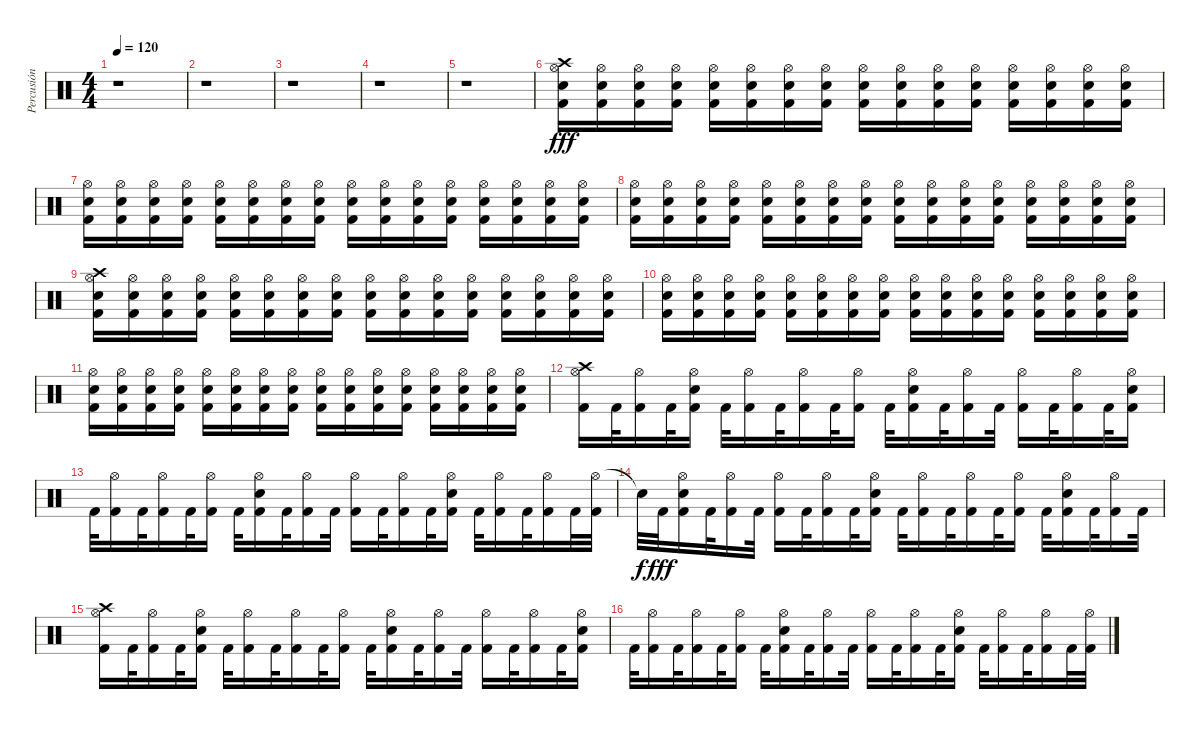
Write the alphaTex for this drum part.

\track ("Percusión" "Percusión") {instrument percussion}
\staff {score}
\articulation defaults
\ts (4 4)
\tempo 120
\clef neutral
\ks c
r.1{dy f} |
r.1 |
r.1 |
r.1 |
r.1 |
("Crash high (hit)" "Hi-Hat (open)" "Electric Snare (hit)" "Kick (hit) 2").16{dy fff} ("Hi-Hat (open)" "Electric Snare (hit)" "Kick (hit) 2").16 ("Hi-Hat (open)" "Electric Snare (hit)" "Kick (hit) 2").16 ("Hi-Hat (open)" "Electric Snare (hit)" "Kick (hit) 2").16 ("Hi-Hat (open)" "Electric Snare (hit)" "Kick (hit) 2").16 ("Hi-Hat (open)" "Electric Snare (hit)" "Kick (hit) 2").16 ("Hi-Hat (open)" "Electric Snare (hit)" "Kick (hit) 2").16 ("Hi-Hat (open)" "Electric Snare (hit)" "Kick (hit) 2").16 ("Hi-Hat (open)" "Electric Snare (hit)" "Kick (hit) 2").16 ("Hi-Hat (open)" "Electric Snare (hit)" "Kick (hit) 2").16 ("Hi-Hat (open)" "Electric Snare (hit)" "Kick (hit) 2").16 ("Hi-Hat (open)" "Electric Snare (hit)" "Kick (hit) 2").16 ("Hi-Hat (open)" "Electric Snare (hit)" "Kick (hit) 2").16 ("Hi-Hat (open)" "Electric Snare (hit)" "Kick (hit) 2").16 ("Hi-Hat (open)" "Electric Snare (hit)" "Kick (hit) 2").16 ("Hi-Hat (open)" "Electric Snare (hit)" "Kick (hit) 2").16 |
("Hi-Hat (open)" "Electric Snare (hit)" "Kick (hit) 2").16 ("Hi-Hat (open)" "Electric Snare (hit)" "Kick (hit) 2").16 ("Hi-Hat (open)" "Electric Snare (hit)" "Kick (hit) 2").16 ("Hi-Hat (open)" "Electric Snare (hit)" "Kick (hit) 2").16 ("Hi-Hat (open)" "Electric Snare (hit)" "Kick (hit) 2").16 ("Hi-Hat (open)" "Electric Snare (hit)" "Kick (hit) 2").16 ("Hi-Hat (open)" "Electric Snare (hit)" "Kick (hit) 2").16 ("Hi-Hat (open)" "Electric Snare (hit)" "Kick (hit) 2").16 ("Hi-Hat (open)" "Electric Snare (hit)" "Kick (hit) 2").16 ("Hi-Hat (open)" "Electric Snare (hit)" "Kick (hit) 2").16 ("Hi-Hat (open)" "Electric Snare (hit)" "Kick (hit) 2").16 ("Hi-Hat (open)" "Electric Snare (hit)" "Kick (hit) 2").16 ("Hi-Hat (open)" "Electric Snare (hit)" "Kick (hit) 2").16 ("Hi-Hat (open)" "Electric Snare (hit)" "Kick (hit) 2").16 ("Hi-Hat (open)" "Electric Snare (hit)" "Kick (hit) 2").16 ("Hi-Hat (open)" "Electric Snare (hit)" "Kick (hit) 2").16 |
("Hi-Hat (open)" "Electric Snare (hit)" "Kick (hit) 2").16 ("Hi-Hat (open)" "Electric Snare (hit)" "Kick (hit) 2").16 ("Hi-Hat (open)" "Electric Snare (hit)" "Kick (hit) 2").16 ("Hi-Hat (open)" "Electric Snare (hit)" "Kick (hit) 2").16 ("Hi-Hat (open)" "Electric Snare (hit)" "Kick (hit) 2").16 ("Hi-Hat (open)" "Electric Snare (hit)" "Kick (hit) 2").16 ("Hi-Hat (open)" "Electric Snare (hit)" "Kick (hit) 2").16 ("Hi-Hat (open)" "Electric Snare (hit)" "Kick (hit) 2").16 ("Hi-Hat (open)" "Electric Snare (hit)" "Kick (hit) 2").16 ("Hi-Hat (open)" "Electric Snare (hit)" "Kick (hit) 2").16 ("Hi-Hat (open)" "Electric Snare (hit)" "Kick (hit) 2").16 ("Hi-Hat (open)" "Electric Snare (hit)" "Kick (hit) 2").16 ("Hi-Hat (open)" "Electric Snare (hit)" "Kick (hit) 2").16 ("Hi-Hat (open)" "Electric Snare (hit)" "Kick (hit) 2").16 ("Hi-Hat (open)" "Electric Snare (hit)" "Kick (hit) 2").16 ("Hi-Hat (open)" "Electric Snare (hit)" "Kick (hit) 2").16 |
("Crash high (hit)" "Hi-Hat (open)" "Electric Snare (hit)" "Kick (hit) 2").16 ("Hi-Hat (open)" "Electric Snare (hit)" "Kick (hit) 2").16 ("Hi-Hat (open)" "Electric Snare (hit)" "Kick (hit) 2").16 ("Hi-Hat (open)" "Electric Snare (hit)" "Kick (hit) 2").16 ("Hi-Hat (open)" "Electric Snare (hit)" "Kick (hit) 2").16 ("Hi-Hat (open)" "Electric Snare (hit)" "Kick (hit) 2").16 ("Hi-Hat (open)" "Electric Snare (hit)" "Kick (hit) 2").16 ("Hi-Hat (open)" "Electric Snare (hit)" "Kick (hit) 2").16 ("Hi-Hat (open)" "Electric Snare (hit)" "Kick (hit) 2").16 ("Hi-Hat (open)" "Electric Snare (hit)" "Kick (hit) 2").16 ("Hi-Hat (open)" "Electric Snare (hit)" "Kick (hit) 2").16 ("Hi-Hat (open)" "Electric Snare (hit)" "Kick (hit) 2").16 ("Hi-Hat (open)" "Electric Snare (hit)" "Kick (hit) 2").16 ("Hi-Hat (open)" "Electric Snare (hit)" "Kick (hit) 2").16 ("Hi-Hat (open)" "Electric Snare (hit)" "Kick (hit) 2").16 ("Hi-Hat (open)" "Electric Snare (hit)" "Kick (hit) 2").16 |
("Hi-Hat (open)" "Electric Snare (hit)" "Kick (hit) 2").16 ("Hi-Hat (open)" "Electric Snare (hit)" "Kick (hit) 2").16 ("Hi-Hat (open)" "Electric Snare (hit)" "Kick (hit) 2").16 ("Hi-Hat (open)" "Electric Snare (hit)" "Kick (hit) 2").16 ("Hi-Hat (open)" "Electric Snare (hit)" "Kick (hit) 2").16 ("Hi-Hat (open)" "Electric Snare (hit)" "Kick (hit) 2").16 ("Hi-Hat (open)" "Electric Snare (hit)" "Kick (hit) 2").16 ("Hi-Hat (open)" "Electric Snare (hit)" "Kick (hit) 2").16 ("Hi-Hat (open)" "Electric Snare (hit)" "Kick (hit) 2").16 ("Hi-Hat (open)" "Electric Snare (hit)" "Kick (hit) 2").16 ("Hi-Hat (open)" "Electric Snare (hit)" "Kick (hit) 2").16 ("Hi-Hat (open)" "Electric Snare (hit)" "Kick (hit) 2").16 ("Hi-Hat (open)" "Electric Snare (hit)" "Kick (hit) 2").16 ("Hi-Hat (open)" "Electric Snare (hit)" "Kick (hit) 2").16 ("Hi-Hat (open)" "Electric Snare (hit)" "Kick (hit) 2").16 ("Hi-Hat (open)" "Electric Snare (hit)" "Kick (hit) 2").16 |
("Hi-Hat (open)" "Electric Snare (hit)" "Kick (hit) 2").16 ("Hi-Hat (open)" "Electric Snare (hit)" "Kick (hit) 2").16 ("Hi-Hat (open)" "Electric Snare (hit)" "Kick (hit) 2").16 ("Hi-Hat (open)" "Electric Snare (hit)" "Kick (hit) 2").16 ("Hi-Hat (open)" "Electric Snare (hit)" "Kick (hit) 2").16 ("Hi-Hat (open)" "Electric Snare (hit)" "Kick (hit) 2").16 ("Hi-Hat (open)" "Electric Snare (hit)" "Kick (hit) 2").16 ("Hi-Hat (open)" "Electric Snare (hit)" "Kick (hit) 2").16 ("Hi-Hat (open)" "Electric Snare (hit)" "Kick (hit) 2").16 ("Hi-Hat (open)" "Electric Snare (hit)" "Kick (hit) 2").16 ("Hi-Hat (open)" "Electric Snare (hit)" "Kick (hit) 2").16 ("Hi-Hat (open)" "Electric Snare (hit)" "Kick (hit) 2").16 ("Hi-Hat (open)" "Electric Snare (hit)" "Kick (hit) 2").16 ("Hi-Hat (open)" "Electric Snare (hit)" "Kick (hit) 2").16 ("Hi-Hat (open)" "Electric Snare (hit)" "Kick (hit) 2").16 ("Hi-Hat (open)" "Electric Snare (hit)" "Kick (hit) 2").16 |
("Hi-Hat (open)" "Crash high (hit)" "Kick (hit) 2").16 "Kick (hit) 2".32 ("Hi-Hat (open)" "Kick (hit) 2").16 "Kick (hit) 2".32 ("Hi-Hat (open)" "Electric Snare (hit)" "Kick (hit) 2").16 "Kick (hit) 2".32 ("Hi-Hat (open)" "Kick (hit) 2").16 "Kick (hit) 2".32 ("Hi-Hat (open)" "Kick (hit) 2").16 "Kick (hit) 2".32 ("Hi-Hat (open)" "Kick (hit) 2").16 "Kick (hit) 2".32 ("Hi-Hat (open)" "Electric Snare (hit)" "Kick (hit) 2").16 "Kick (hit) 2".32 ("Hi-Hat (open)" "Kick (hit) 2").16 "Kick (hit) 2".32 ("Hi-Hat (open)" "Kick (hit) 2").16 "Kick (hit) 2".32 ("Hi-Hat (open)" "Kick (hit) 2").16 "Kick (hit) 2".32 ("Hi-Hat (open)" "Electric Snare (hit)" "Kick (hit) 2").16 |
"Kick (hit) 2".32 ("Hi-Hat (open)" "Kick (hit) 2").16 "Kick (hit) 2".32 ("Hi-Hat (open)" "Kick (hit) 2").16 "Kick (hit) 2".32 ("Hi-Hat (open)" "Kick (hit) 2").16 "Kick (hit) 2".32 ("Hi-Hat (open)" "Electric Snare (hit)" "Kick (hit) 2").16 "Kick (hit) 2".32 ("Hi-Hat (open)" "Kick (hit) 2").16 "Kick (hit) 2".32 ("Hi-Hat (open)" "Kick (hit) 2").16 "Kick (hit) 2".32 ("Hi-Hat (open)" "Kick (hit) 2").16 "Kick (hit) 2".32 ("Hi-Hat (open)" "Electric Snare (hit)" "Kick (hit) 2").16 "Kick (hit) 2".32 ("Hi-Hat (open)" "Kick (hit) 2").16 "Kick (hit) 2".32 ("Hi-Hat (open)" "Kick (hit) 2").16 "Kick (hit) 2".32 ("Hi-Hat (open)" "Kick (hit) 2").32 |
"Snare (hit)"{t}.32{dy f} "Kick (hit) 2".32{dy fff} ("Hi-Hat (open)" "Electric Snare (hit)" "Kick (hit) 2").16 "Kick (hit) 2".32 ("Hi-Hat (open)" "Kick (hit) 2").16 "Kick (hit) 2".32 ("Hi-Hat (open)" "Kick (hit) 2").16 "Kick (hit) 2".32 ("Hi-Hat (open)" "Kick (hit) 2").16 "Kick (hit) 2".32 ("Hi-Hat (open)" "Electric Snare (hit)" "Kick (hit) 2").16 "Kick (hit) 2".32 ("Hi-Hat (open)" "Kick (hit) 2").16 "Kick (hit) 2".32 ("Hi-Hat (open)" "Kick (hit) 2").16 "Kick (hit) 2".32 ("Hi-Hat (open)" "Kick (hit) 2").16 "Kick (hit) 2".32 ("Hi-Hat (open)" "Electric Snare (hit)" "Kick (hit) 2").16 "Kick (hit) 2".32 ("Hi-Hat (open)" "Kick (hit) 2").16 "Kick (hit) 2".32 |
("Hi-Hat (open)" "Crash high (hit)" "Kick (hit) 2").16 "Kick (hit) 2".32 ("Hi-Hat (open)" "Kick (hit) 2").16 "Kick (hit) 2".32 ("Hi-Hat (open)" "Electric Snare (hit)" "Kick (hit) 2").16 "Kick (hit) 2".32 ("Hi-Hat (open)" "Kick (hit) 2").16 "Kick (hit) 2".32 ("Hi-Hat (open)" "Kick (hit) 2").16 "Kick (hit) 2".32 ("Hi-Hat (open)" "Kick (hit) 2").16 "Kick (hit) 2".32 ("Hi-Hat (open)" "Electric Snare (hit)" "Kick (hit) 2").16 "Kick (hit) 2".32 ("Hi-Hat (open)" "Kick (hit) 2").16 "Kick (hit) 2".32 ("Hi-Hat (open)" "Kick (hit) 2").16 "Kick (hit) 2".32 ("Hi-Hat (open)" "Kick (hit) 2").16 "Kick (hit) 2".32 ("Hi-Hat (open)" "Electric Snare (hit)" "Kick (hit) 2").16 |
"Kick (hit) 2".32 ("Hi-Hat (open)" "Kick (hit) 2").16 "Kick (hit) 2".32 ("Hi-Hat (open)" "Kick (hit) 2").16 "Kick (hit) 2".32 ("Hi-Hat (open)" "Kick (hit) 2").16 "Kick (hit) 2".32 ("Hi-Hat (open)" "Electric Snare (hit)" "Kick (hit) 2").16 "Kick (hit) 2".32 ("Hi-Hat (open)" "Kick (hit) 2").16 "Kick (hit) 2".32 ("Hi-Hat (open)" "Kick (hit) 2").16 "Kick (hit) 2".32 ("Hi-Hat (open)" "Kick (hit) 2").16 "Kick (hit) 2".32 ("Hi-Hat (open)" "Electric Snare (hit)" "Kick (hit) 2").16 "Kick (hit) 2".32 ("Hi-Hat (open)" "Kick (hit) 2").16 "Kick (hit) 2".32 ("Hi-Hat (open)" "Kick (hit) 2").16 "Kick (hit) 2".32 ("Hi-Hat (open)" "Kick (hit) 2").32
